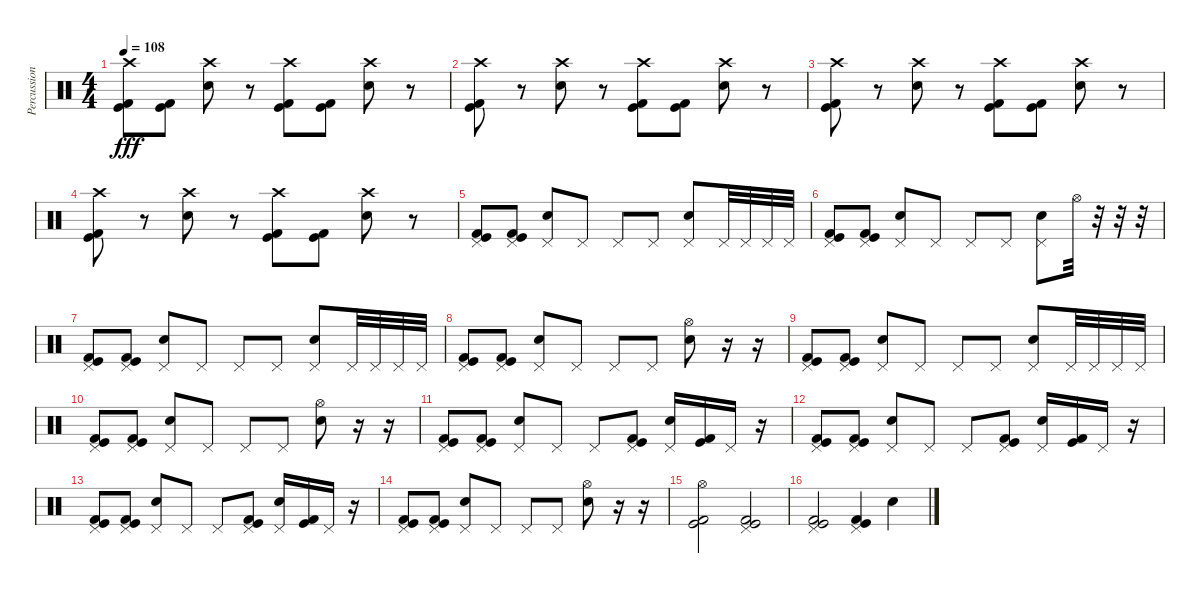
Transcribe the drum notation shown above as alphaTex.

\track ("Percussion" "Percussion") {instrument percussion}
\staff {score}
\articulation defaults
\ts (4 4)
\tempo 108
\clef neutral
\ks c
("Crash high (hit)" "Kick (hit) 2" "Kick (hit)").8{dy fff} ("Kick (hit) 2" "Kick (hit)").8 ("Crash high (hit)" "Snare (hit) 2").8 r.8 ("Crash high (hit)" "Kick (hit) 2" "Kick (hit)").8 ("Kick (hit) 2" "Kick (hit)").8 ("Crash high (hit)" "Snare (hit) 2").8 r.8 |
("Crash high (hit)" "Kick (hit) 2" "Kick (hit)").8 r.8 ("Crash high (hit)" "Snare (hit) 2").8 r.8 ("Crash high (hit)" "Kick (hit) 2" "Kick (hit)").8 ("Kick (hit) 2" "Kick (hit)").8 ("Crash high (hit)" "Snare (hit) 2").8 r.8 |
("Crash high (hit)" "Kick (hit) 2" "Kick (hit)").8 r.8 ("Crash high (hit)" "Snare (hit) 2").8 r.8 ("Crash high (hit)" "Kick (hit) 2" "Kick (hit)").8 ("Kick (hit) 2" "Kick (hit)").8 ("Crash high (hit)" "Snare (hit) 2").8 r.8 |
("Crash high (hit)" "Kick (hit) 2" "Kick (hit)").8 r.8 ("Crash high (hit)" "Snare (hit) 2").8 r.8 ("Crash high (hit)" "Kick (hit) 2" "Kick (hit)").8 ("Kick (hit) 2" "Kick (hit)").8 ("Crash high (hit)" "Snare (hit) 2").8 r.8 |
("Pedal Hi-Hat (hit)" "Kick (hit) 2" "Kick (hit)").8 ("Pedal Hi-Hat (hit)" "Kick (hit) 2" "Kick (hit)").8 ("Pedal Hi-Hat (hit)" "Snare (hit) 2").8 "Pedal Hi-Hat (hit)".8 "Pedal Hi-Hat (hit)".8 "Pedal Hi-Hat (hit)".8 ("Pedal Hi-Hat (hit)" "Snare (hit) 2").8 "Pedal Hi-Hat (hit)".32 "Pedal Hi-Hat (hit)".32 "Pedal Hi-Hat (hit)".32 "Pedal Hi-Hat (hit)".32 |
("Pedal Hi-Hat (hit)" "Kick (hit) 2" "Kick (hit)").8 ("Pedal Hi-Hat (hit)" "Kick (hit) 2" "Kick (hit)").8 ("Pedal Hi-Hat (hit)" "Snare (hit) 2").8 "Pedal Hi-Hat (hit)".8 "Pedal Hi-Hat (hit)".8 "Pedal Hi-Hat (hit)".8 ("Pedal Hi-Hat (hit)" "Snare (hit) 2").8 "Hi-Hat (open)".32 r.32 r.32 r.32 |
("Pedal Hi-Hat (hit)" "Kick (hit) 2" "Kick (hit)").8 ("Pedal Hi-Hat (hit)" "Kick (hit) 2" "Kick (hit)").8 ("Pedal Hi-Hat (hit)" "Snare (hit) 2").8 "Pedal Hi-Hat (hit)".8 "Pedal Hi-Hat (hit)".8 "Pedal Hi-Hat (hit)".8 ("Pedal Hi-Hat (hit)" "Snare (hit) 2").8 "Pedal Hi-Hat (hit)".32 "Pedal Hi-Hat (hit)".32 "Pedal Hi-Hat (hit)".32 "Pedal Hi-Hat (hit)".32 |
("Pedal Hi-Hat (hit)" "Kick (hit) 2" "Kick (hit)").8 ("Pedal Hi-Hat (hit)" "Kick (hit) 2" "Kick (hit)").8 ("Pedal Hi-Hat (hit)" "Snare (hit) 2").8 "Pedal Hi-Hat (hit)".8 "Pedal Hi-Hat (hit)".8 "Pedal Hi-Hat (hit)".8 ("Hi-Hat (open)" "Snare (hit) 2").8 r.16 r.16 |
("Pedal Hi-Hat (hit)" "Kick (hit) 2" "Kick (hit)").8 ("Pedal Hi-Hat (hit)" "Kick (hit) 2" "Kick (hit)").8 ("Pedal Hi-Hat (hit)" "Snare (hit) 2").8 "Pedal Hi-Hat (hit)".8 "Pedal Hi-Hat (hit)".8 "Pedal Hi-Hat (hit)".8 ("Pedal Hi-Hat (hit)" "Snare (hit) 2").8 "Pedal Hi-Hat (hit)".32 "Pedal Hi-Hat (hit)".32 "Pedal Hi-Hat (hit)".32 "Pedal Hi-Hat (hit)".32 |
("Pedal Hi-Hat (hit)" "Kick (hit) 2" "Kick (hit)").8 ("Pedal Hi-Hat (hit)" "Kick (hit) 2" "Kick (hit)").8 ("Pedal Hi-Hat (hit)" "Snare (hit) 2").8 "Pedal Hi-Hat (hit)".8 "Pedal Hi-Hat (hit)".8 "Pedal Hi-Hat (hit)".8 ("Hi-Hat (open)" "Snare (hit) 2").8 r.16 r.16 |
("Pedal Hi-Hat (hit)" "Kick (hit) 2" "Kick (hit)").8 ("Pedal Hi-Hat (hit)" "Kick (hit) 2" "Kick (hit)").8 ("Pedal Hi-Hat (hit)" "Snare (hit) 2").8 "Pedal Hi-Hat (hit)".8 "Pedal Hi-Hat (hit)".8 ("Pedal Hi-Hat (hit)" "Kick (hit) 2" "Kick (hit)").8 ("Pedal Hi-Hat (hit)" "Snare (hit) 2").16 ("Kick (hit) 2" "Kick (hit)").16 "Pedal Hi-Hat (hit)".16 r.16 |
("Pedal Hi-Hat (hit)" "Kick (hit) 2" "Kick (hit)").8 ("Pedal Hi-Hat (hit)" "Kick (hit) 2" "Kick (hit)").8 ("Pedal Hi-Hat (hit)" "Snare (hit) 2").8 "Pedal Hi-Hat (hit)".8 "Pedal Hi-Hat (hit)".8 ("Pedal Hi-Hat (hit)" "Kick (hit) 2" "Kick (hit)").8 ("Pedal Hi-Hat (hit)" "Snare (hit) 2").16 ("Kick (hit) 2" "Kick (hit)").16 "Pedal Hi-Hat (hit)".16 r.16 |
("Pedal Hi-Hat (hit)" "Kick (hit) 2" "Kick (hit)").8 ("Pedal Hi-Hat (hit)" "Kick (hit) 2" "Kick (hit)").8 ("Pedal Hi-Hat (hit)" "Snare (hit) 2").8 "Pedal Hi-Hat (hit)".8 "Pedal Hi-Hat (hit)".8 ("Pedal Hi-Hat (hit)" "Kick (hit) 2" "Kick (hit)").8 ("Pedal Hi-Hat (hit)" "Snare (hit) 2").16 ("Kick (hit) 2" "Kick (hit)").16 "Pedal Hi-Hat (hit)".16 r.16 |
("Pedal Hi-Hat (hit)" "Kick (hit) 2" "Kick (hit)").8 ("Pedal Hi-Hat (hit)" "Kick (hit) 2" "Kick (hit)").8 ("Pedal Hi-Hat (hit)" "Snare (hit) 2").8 "Pedal Hi-Hat (hit)".8 "Pedal Hi-Hat (hit)".8 "Pedal Hi-Hat (hit)".8 ("Hi-Hat (open)" "Snare (hit) 2").8 r.16 r.16 |
("Hi-Hat (open)" "Kick (hit) 2" "Kick (hit)").2 ("Pedal Hi-Hat (hit)" "Kick (hit) 2" "Kick (hit)").2 |
("Pedal Hi-Hat (hit)" "Kick (hit) 2" "Kick (hit)").2 ("Pedal Hi-Hat (hit)" "Kick (hit) 2" "Kick (hit)").4 "Snare (hit) 2".4
